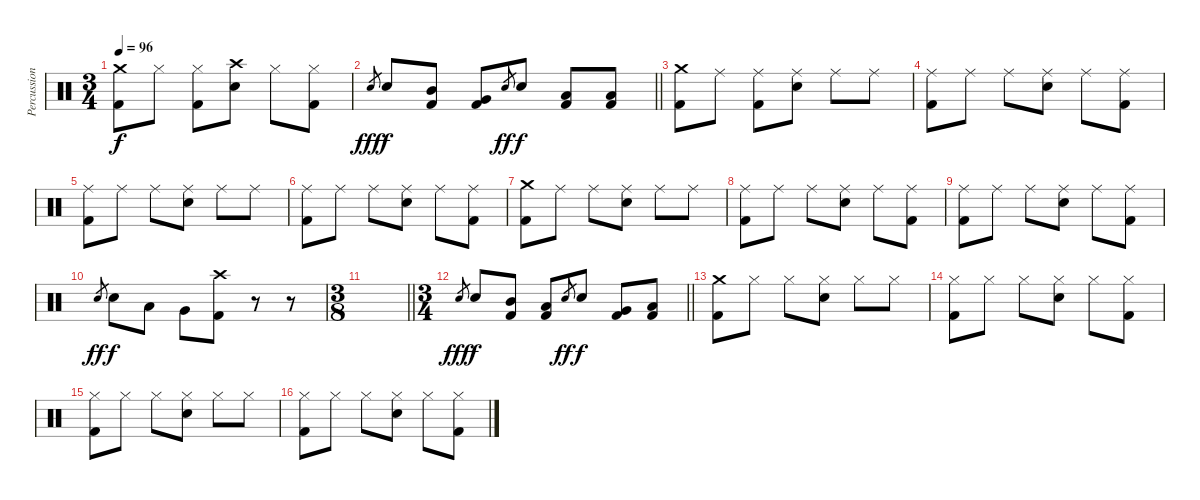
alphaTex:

\track ("Percussion" "Percussion") {instrument percussion}
\staff {score}
\articulation defaults
\ts (3 4)
\tempo 96
\clef neutral
\ks c
("Crash medium (hit)" "Kick (hit) 2").8{dy f} "Hi-Hat (closed)".8 ("Hi-Hat (closed)" "Kick (hit) 2").8 ("Crash high (hit)" "Snare (hit) 2").8 "Hi-Hat (closed)".8 ("Hi-Hat (closed)" "Kick (hit) 2").8 |
\barLineRight lightlight "Snare (hit) 2".8{gr dy fff} "Snare (hit) 2".8{dy f}
("Mid Tom (hit)" "Kick (hit) 2").8 ("Very Low Tom (hit)" "Kick (hit) 2").8 "Snare (hit) 2".8{gr dy ff} "Snare (hit) 2".8{dy f} ("Low Tom (hit)" "Kick (hit) 2").8 ("Low Floor Tom (hit)" "Kick (hit) 2").8 |
("Crash medium (hit)" "Kick (hit) 2").8 "Ride (middle)".8 ("Ride (middle)" "Kick (hit) 2").8 ("Ride (middle)" "Snare (hit) 2").8 "Ride (middle)".8 "Ride (middle)".8 |
("Ride (middle)" "Kick (hit) 2").8 "Ride (middle)".8 "Ride (middle)".8 ("Ride (middle)" "Snare (hit) 2").8 "Ride (middle)".8 ("Ride (middle)" "Kick (hit) 2").8 |
("Ride (middle)" "Kick (hit) 2").8 "Ride (middle)".8 "Ride (middle)".8 ("Ride (middle)" "Snare (hit) 2").8 "Ride (middle)".8 "Ride (middle)".8 |
("Ride (middle)" "Kick (hit) 2").8 "Ride (middle)".8 "Ride (middle)".8 ("Ride (middle)" "Snare (hit) 2").8 "Ride (middle)".8 ("Ride (middle)" "Kick (hit) 2").8 |
("Crash medium (hit)" "Kick (hit) 2").8 "Ride (middle)".8 "Ride (middle)".8 ("Ride (middle)" "Snare (hit) 2").8 "Ride (middle)".8 "Ride (middle)".8 |
("Ride (middle)" "Kick (hit) 2").8 "Ride (middle)".8 "Ride (middle)".8 ("Ride (middle)" "Snare (hit) 2").8 "Ride (middle)".8 ("Ride (middle)" "Kick (hit) 2").8 |
("Ride (middle)" "Kick (hit) 2").8 "Ride (middle)".8 "Ride (middle)".8 ("Ride (middle)" "Snare (hit) 2").8 "Ride (middle)".8 ("Ride (middle)" "Kick (hit) 2").8 |
"Snare (hit) 2".8{gr dy ff} "Snare (hit) 2".8{dy f} "Low Tom (hit)".8 "Very Low Tom (hit)".8 ("Crash high (hit)" "Kick (hit) 2").8 r.8 r.8 |
\ts (3 8)
\barLineRight lightlight
|
\ts (3 4)
\barLineRight lightlight "Snare (hit) 2".8{gr dy fff} "Snare (hit) 2".8{dy f}
("Mid Tom (hit)" "Kick (hit) 2").8 ("Low Tom (hit)" "Kick (hit) 2").8 "Snare (hit) 2".8{gr dy ff} "Snare (hit) 2".8{dy f} ("Very Low Tom (hit)" "Kick (hit) 2").8 ("Low Floor Tom (hit)" "Kick (hit) 2").8 |
("Crash medium (hit)" "Kick (hit) 2").8 "Hi-Hat (closed)".8 "Hi-Hat (closed)".8 ("Hi-Hat (closed)" "Snare (hit) 2").8 "Hi-Hat (closed)".8 "Hi-Hat (closed)".8 |
("Hi-Hat (closed)" "Kick (hit) 2").8 "Hi-Hat (closed)".8 "Hi-Hat (closed)".8 ("Hi-Hat (closed)" "Snare (hit) 2").8 "Hi-Hat (closed)".8 ("Hi-Hat (closed)" "Kick (hit) 2").8 |
("Hi-Hat (closed)" "Kick (hit) 2").8 "Hi-Hat (closed)".8 "Hi-Hat (closed)".8 ("Hi-Hat (closed)" "Snare (hit) 2").8 "Hi-Hat (closed)".8 "Hi-Hat (closed)".8 |
("Hi-Hat (closed)" "Kick (hit) 2").8 "Hi-Hat (closed)".8 "Hi-Hat (closed)".8 ("Hi-Hat (closed)" "Snare (hit) 2").8 "Hi-Hat (closed)".8 ("Hi-Hat (closed)" "Kick (hit) 2").8
